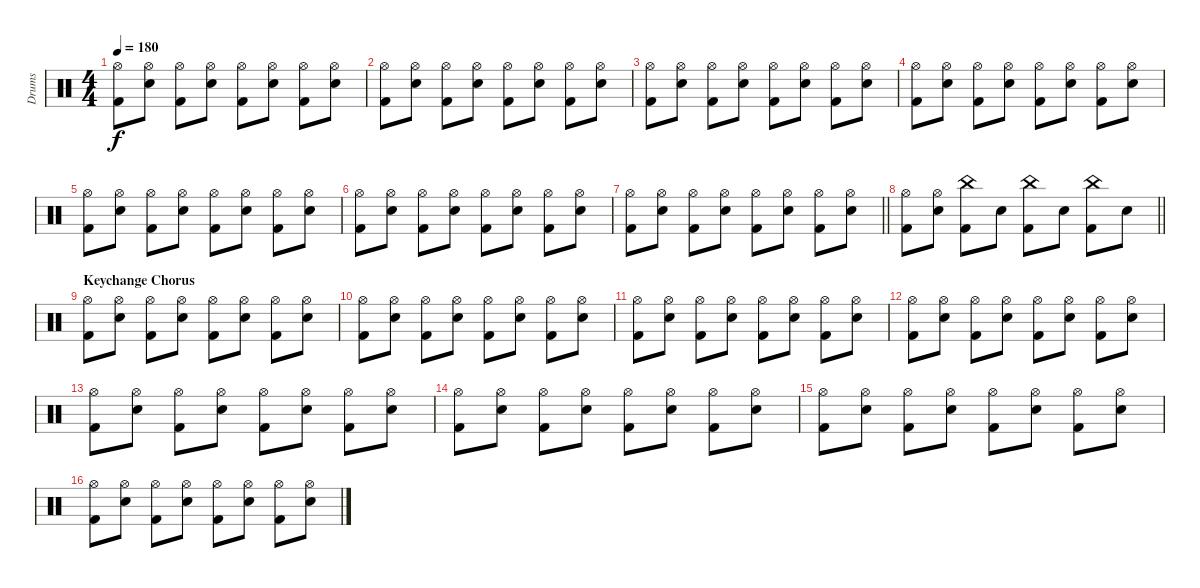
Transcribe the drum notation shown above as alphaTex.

\track ("Drums" "Drums") {instrument percussion}
\staff {score}
\articulation defaults
\ts (4 4)
\tempo 180
\clef neutral
\ks c
("Hi-Hat (open)" "Kick (hit) 2").8{dy f} ("Hi-Hat (open)" "Snare (hit) 2").8 ("Hi-Hat (open)" "Kick (hit) 2").8 ("Hi-Hat (open)" "Snare (hit) 2").8 ("Hi-Hat (open)" "Kick (hit) 2").8 ("Hi-Hat (open)" "Snare (hit) 2").8 ("Hi-Hat (open)" "Kick (hit) 2").8 ("Hi-Hat (open)" "Snare (hit) 2").8 |
("Hi-Hat (open)" "Kick (hit) 2").8 ("Hi-Hat (open)" "Snare (hit) 2").8 ("Hi-Hat (open)" "Kick (hit) 2").8 ("Hi-Hat (open)" "Snare (hit) 2").8 ("Hi-Hat (open)" "Kick (hit) 2").8 ("Hi-Hat (open)" "Snare (hit) 2").8 ("Hi-Hat (open)" "Kick (hit) 2").8 ("Hi-Hat (open)" "Snare (hit) 2").8 |
("Hi-Hat (open)" "Kick (hit) 2").8 ("Hi-Hat (open)" "Snare (hit) 2").8 ("Hi-Hat (open)" "Kick (hit) 2").8 ("Hi-Hat (open)" "Snare (hit) 2").8 ("Hi-Hat (open)" "Kick (hit) 2").8 ("Hi-Hat (open)" "Snare (hit) 2").8 ("Hi-Hat (open)" "Kick (hit) 2").8 ("Hi-Hat (open)" "Snare (hit) 2").8 |
("Hi-Hat (open)" "Kick (hit) 2").8 ("Hi-Hat (open)" "Snare (hit) 2").8 ("Hi-Hat (open)" "Kick (hit) 2").8 ("Hi-Hat (open)" "Snare (hit) 2").8 ("Hi-Hat (open)" "Kick (hit) 2").8 ("Hi-Hat (open)" "Snare (hit) 2").8 ("Hi-Hat (open)" "Kick (hit) 2").8 ("Hi-Hat (open)" "Snare (hit) 2").8 |
("Hi-Hat (open)" "Kick (hit) 2").8 ("Hi-Hat (open)" "Snare (hit) 2").8 ("Hi-Hat (open)" "Kick (hit) 2").8 ("Hi-Hat (open)" "Snare (hit) 2").8 ("Hi-Hat (open)" "Kick (hit) 2").8 ("Hi-Hat (open)" "Snare (hit) 2").8 ("Hi-Hat (open)" "Kick (hit) 2").8 ("Hi-Hat (open)" "Snare (hit) 2").8 |
("Hi-Hat (open)" "Kick (hit) 2").8 ("Hi-Hat (open)" "Snare (hit) 2").8 ("Hi-Hat (open)" "Kick (hit) 2").8 ("Hi-Hat (open)" "Snare (hit) 2").8 ("Hi-Hat (open)" "Kick (hit) 2").8 ("Hi-Hat (open)" "Snare (hit) 2").8 ("Hi-Hat (open)" "Kick (hit) 2").8 ("Hi-Hat (open)" "Snare (hit) 2").8 |
\barLineRight lightlight
("Hi-Hat (open)" "Kick (hit) 2").8 ("Hi-Hat (open)" "Snare (hit) 2").8 ("Hi-Hat (open)" "Kick (hit) 2").8 ("Hi-Hat (open)" "Snare (hit) 2").8 ("Hi-Hat (open)" "Kick (hit) 2").8 ("Hi-Hat (open)" "Snare (hit) 2").8 ("Hi-Hat (open)" "Kick (hit) 2").8 ("Hi-Hat (open)" "Snare (hit) 2").8 |
\barLineRight lightlight
("Hi-Hat (open)" "Kick (hit) 2").8 ("Hi-Hat (open)" "Snare (hit) 2").8 ("China (hit)" "Kick (hit) 2").8 "Snare (hit) 2".8 ("China (hit)" "Kick (hit) 2").8 "Snare (hit) 2".8 ("China (hit)" "Kick (hit) 2").8 "Snare (hit) 2".8 |
\section ("" "Keychange Chorus")
("Hi-Hat (open)" "Kick (hit) 2").8 ("Hi-Hat (open)" "Snare (hit) 2").8 ("Hi-Hat (open)" "Kick (hit) 2").8 ("Hi-Hat (open)" "Snare (hit) 2").8 ("Hi-Hat (open)" "Kick (hit) 2").8 ("Hi-Hat (open)" "Snare (hit) 2").8 ("Hi-Hat (open)" "Kick (hit) 2").8 ("Hi-Hat (open)" "Snare (hit) 2").8 |
("Hi-Hat (open)" "Kick (hit) 2").8 ("Hi-Hat (open)" "Snare (hit) 2").8 ("Hi-Hat (open)" "Kick (hit) 2").8 ("Hi-Hat (open)" "Snare (hit) 2").8 ("Hi-Hat (open)" "Kick (hit) 2").8 ("Hi-Hat (open)" "Snare (hit) 2").8 ("Hi-Hat (open)" "Kick (hit) 2").8 ("Hi-Hat (open)" "Snare (hit) 2").8 |
("Hi-Hat (open)" "Kick (hit) 2").8 ("Hi-Hat (open)" "Snare (hit) 2").8 ("Hi-Hat (open)" "Kick (hit) 2").8 ("Hi-Hat (open)" "Snare (hit) 2").8 ("Hi-Hat (open)" "Kick (hit) 2").8 ("Hi-Hat (open)" "Snare (hit) 2").8 ("Hi-Hat (open)" "Kick (hit) 2").8 ("Hi-Hat (open)" "Snare (hit) 2").8 |
("Hi-Hat (open)" "Kick (hit) 2").8 ("Hi-Hat (open)" "Snare (hit) 2").8 ("Hi-Hat (open)" "Kick (hit) 2").8 ("Hi-Hat (open)" "Snare (hit) 2").8 ("Hi-Hat (open)" "Kick (hit) 2").8 ("Hi-Hat (open)" "Snare (hit) 2").8 ("Hi-Hat (open)" "Kick (hit) 2").8 ("Hi-Hat (open)" "Snare (hit) 2").8 |
("Hi-Hat (open)" "Kick (hit) 2").8 ("Hi-Hat (open)" "Snare (hit) 2").8 ("Hi-Hat (open)" "Kick (hit) 2").8 ("Hi-Hat (open)" "Snare (hit) 2").8 ("Hi-Hat (open)" "Kick (hit) 2").8 ("Hi-Hat (open)" "Snare (hit) 2").8 ("Hi-Hat (open)" "Kick (hit) 2").8 ("Hi-Hat (open)" "Snare (hit) 2").8 |
("Hi-Hat (open)" "Kick (hit) 2").8 ("Hi-Hat (open)" "Snare (hit) 2").8 ("Hi-Hat (open)" "Kick (hit) 2").8 ("Hi-Hat (open)" "Snare (hit) 2").8 ("Hi-Hat (open)" "Kick (hit) 2").8 ("Hi-Hat (open)" "Snare (hit) 2").8 ("Hi-Hat (open)" "Kick (hit) 2").8 ("Hi-Hat (open)" "Snare (hit) 2").8 |
("Hi-Hat (open)" "Kick (hit) 2").8 ("Hi-Hat (open)" "Snare (hit) 2").8 ("Hi-Hat (open)" "Kick (hit) 2").8 ("Hi-Hat (open)" "Snare (hit) 2").8 ("Hi-Hat (open)" "Kick (hit) 2").8 ("Hi-Hat (open)" "Snare (hit) 2").8 ("Hi-Hat (open)" "Kick (hit) 2").8 ("Hi-Hat (open)" "Snare (hit) 2").8 |
("Hi-Hat (open)" "Kick (hit) 2").8 ("Hi-Hat (open)" "Snare (hit) 2").8 ("Hi-Hat (open)" "Kick (hit) 2").8 ("Hi-Hat (open)" "Snare (hit) 2").8 ("Hi-Hat (open)" "Kick (hit) 2").8 ("Hi-Hat (open)" "Snare (hit) 2").8 ("Hi-Hat (open)" "Kick (hit) 2").8 ("Hi-Hat (open)" "Snare (hit) 2").8
